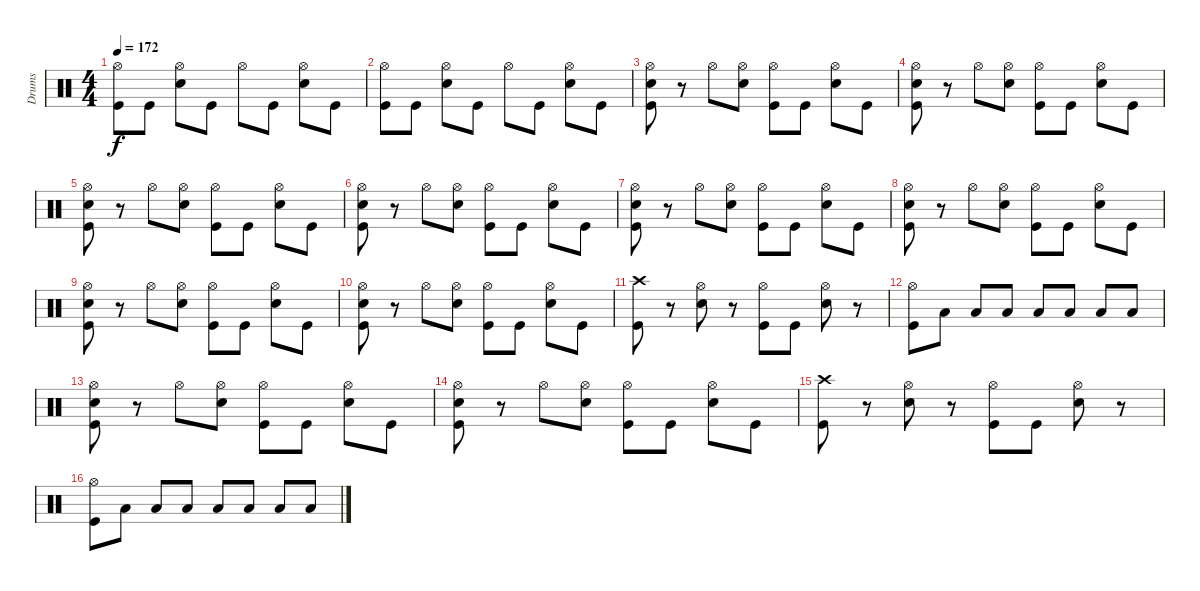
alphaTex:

\track ("Drums" "Drums") {instrument percussion}
\staff {score}
\articulation defaults
\ts (4 4)
\tempo 172
\clef neutral
\ks c
("Hi-Hat (open)" "Kick (hit)").8{dy f} "Kick (hit)".8 ("Hi-Hat (open)" "Snare (hit) 2").8 "Kick (hit)".8 "Hi-Hat (open)".8 "Kick (hit)".8 ("Hi-Hat (open)" "Snare (hit) 2").8 "Kick (hit)".8 |
("Hi-Hat (open)" "Kick (hit)").8 "Kick (hit)".8 ("Hi-Hat (open)" "Snare (hit) 2").8 "Kick (hit)".8 "Hi-Hat (open)".8 "Kick (hit)".8 ("Hi-Hat (open)" "Snare (hit) 2").8 "Kick (hit)".8 |
("Hi-Hat (open)" "Snare (hit) 2" "Kick (hit)").8 r.8 "Hi-Hat (open)".8 ("Hi-Hat (open)" "Snare (hit) 2").8 ("Hi-Hat (open)" "Kick (hit)").8 "Kick (hit)".8 ("Hi-Hat (open)" "Snare (hit) 2").8 "Kick (hit)".8 |
("Hi-Hat (open)" "Snare (hit) 2" "Kick (hit)").8 r.8 "Hi-Hat (open)".8 ("Hi-Hat (open)" "Snare (hit) 2").8 ("Hi-Hat (open)" "Kick (hit)").8 "Kick (hit)".8 ("Hi-Hat (open)" "Snare (hit) 2").8 "Kick (hit)".8 |
("Hi-Hat (open)" "Snare (hit) 2" "Kick (hit)").8 r.8 "Hi-Hat (open)".8 ("Hi-Hat (open)" "Snare (hit) 2").8 ("Hi-Hat (open)" "Kick (hit)").8 "Kick (hit)".8 ("Hi-Hat (open)" "Snare (hit) 2").8 "Kick (hit)".8 |
("Hi-Hat (open)" "Snare (hit) 2" "Kick (hit)").8 r.8 "Hi-Hat (open)".8 ("Hi-Hat (open)" "Snare (hit) 2").8 ("Hi-Hat (open)" "Kick (hit)").8 "Kick (hit)".8 ("Hi-Hat (open)" "Snare (hit) 2").8 "Kick (hit)".8 |
("Hi-Hat (open)" "Snare (hit) 2" "Kick (hit)").8 r.8 "Hi-Hat (open)".8 ("Hi-Hat (open)" "Snare (hit) 2").8 ("Hi-Hat (open)" "Kick (hit)").8 "Kick (hit)".8 ("Hi-Hat (open)" "Snare (hit) 2").8 "Kick (hit)".8 |
("Hi-Hat (open)" "Snare (hit) 2" "Kick (hit)").8 r.8 "Hi-Hat (open)".8 ("Hi-Hat (open)" "Snare (hit) 2").8 ("Hi-Hat (open)" "Kick (hit)").8 "Kick (hit)".8 ("Hi-Hat (open)" "Snare (hit) 2").8 "Kick (hit)".8 |
("Hi-Hat (open)" "Snare (hit) 2" "Kick (hit)").8 r.8 "Hi-Hat (open)".8 ("Hi-Hat (open)" "Snare (hit) 2").8 ("Hi-Hat (open)" "Kick (hit)").8 "Kick (hit)".8 ("Hi-Hat (open)" "Snare (hit) 2").8 "Kick (hit)".8 |
("Hi-Hat (open)" "Snare (hit) 2" "Kick (hit)").8 r.8 "Hi-Hat (open)".8 ("Hi-Hat (open)" "Snare (hit) 2").8 ("Hi-Hat (open)" "Kick (hit)").8 "Kick (hit)".8 ("Hi-Hat (open)" "Snare (hit) 2").8 "Kick (hit)".8 |
("Crash high (hit)" "Kick (hit)").8 r.8 ("Hi-Hat (open)" "Snare (hit) 2").8 r.8 ("Hi-Hat (open)" "Kick (hit)").8 "Kick (hit)".8 ("Hi-Hat (open)" "Snare (hit) 2").8 r.8 |
("Hi-Hat (open)" "Kick (hit)").8 "Low Tom (hit)".8 "Low Tom (hit)".8 "Low Tom (hit)".8 "Low Tom (hit)".8 "Low Tom (hit)".8 "Low Tom (hit)".8 "Low Tom (hit)".8 |
("Hi-Hat (open)" "Snare (hit) 2" "Kick (hit)").8 r.8 "Hi-Hat (open)".8 ("Hi-Hat (open)" "Snare (hit) 2").8 ("Hi-Hat (open)" "Kick (hit)").8 "Kick (hit)".8 ("Hi-Hat (open)" "Snare (hit) 2").8 "Kick (hit)".8 |
("Hi-Hat (open)" "Snare (hit) 2" "Kick (hit)").8 r.8 "Hi-Hat (open)".8 ("Hi-Hat (open)" "Snare (hit) 2").8 ("Hi-Hat (open)" "Kick (hit)").8 "Kick (hit)".8 ("Hi-Hat (open)" "Snare (hit) 2").8 "Kick (hit)".8 |
("Crash high (hit)" "Kick (hit)").8 r.8 ("Hi-Hat (open)" "Snare (hit) 2").8 r.8 ("Hi-Hat (open)" "Kick (hit)").8 "Kick (hit)".8 ("Hi-Hat (open)" "Snare (hit) 2").8 r.8 |
("Hi-Hat (open)" "Kick (hit)").8 "Low Tom (hit)".8 "Low Tom (hit)".8 "Low Tom (hit)".8 "Low Tom (hit)".8 "Low Tom (hit)".8 "Low Tom (hit)".8 "Low Tom (hit)".8
